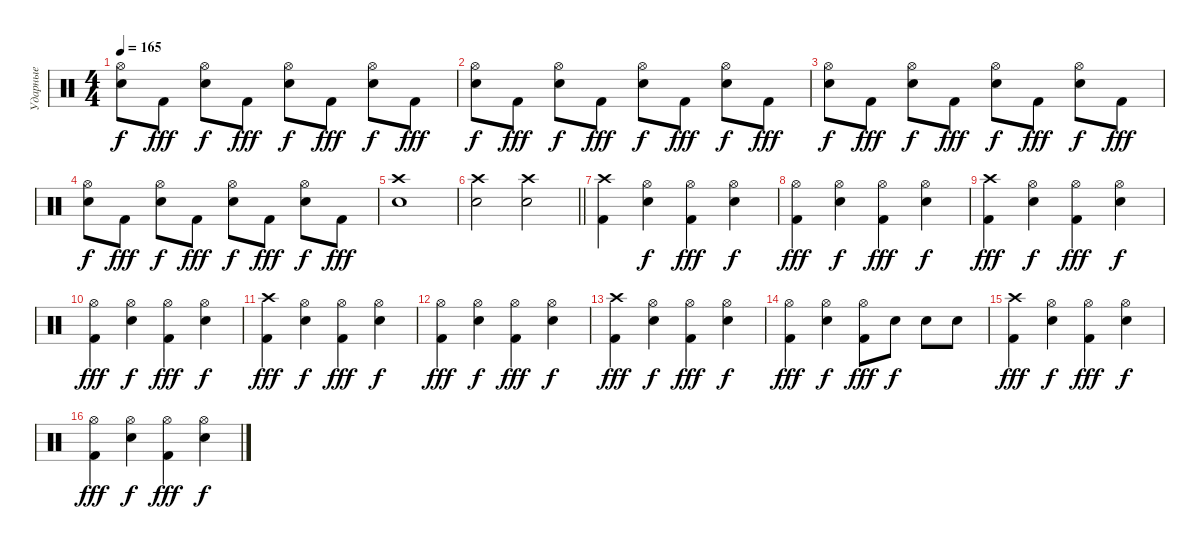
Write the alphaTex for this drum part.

\track ("Ударные" "Ударные") {instrument percussion}
\staff {score}
\articulation defaults
\ts (4 4)
\tempo 165
\clef neutral
\ks c
("Snare (hit) 2" "Hi-Hat (open)").8{dy f} "Kick (hit) 2".8{dy fff} ("Snare (hit) 2" "Hi-Hat (open)").8{dy f} "Kick (hit) 2".8{dy fff} ("Snare (hit) 2" "Hi-Hat (open)").8{dy f} "Kick (hit) 2".8{dy fff} ("Snare (hit) 2" "Hi-Hat (open)").8{dy f} "Kick (hit) 2".8{dy fff} |
("Snare (hit) 2" "Hi-Hat (open)").8{dy f} "Kick (hit) 2".8{dy fff} ("Snare (hit) 2" "Hi-Hat (open)").8{dy f} "Kick (hit) 2".8{dy fff} ("Snare (hit) 2" "Hi-Hat (open)").8{dy f} "Kick (hit) 2".8{dy fff} ("Snare (hit) 2" "Hi-Hat (open)").8{dy f} "Kick (hit) 2".8{dy fff} |
("Snare (hit) 2" "Hi-Hat (open)").8{dy f} "Kick (hit) 2".8{dy fff} ("Snare (hit) 2" "Hi-Hat (open)").8{dy f} "Kick (hit) 2".8{dy fff} ("Snare (hit) 2" "Hi-Hat (open)").8{dy f} "Kick (hit) 2".8{dy fff} ("Snare (hit) 2" "Hi-Hat (open)").8{dy f} "Kick (hit) 2".8{dy fff} |
("Snare (hit) 2" "Hi-Hat (open)").8{dy f} "Kick (hit) 2".8{dy fff} ("Snare (hit) 2" "Hi-Hat (open)").8{dy f} "Kick (hit) 2".8{dy fff} ("Snare (hit) 2" "Hi-Hat (open)").8{dy f} "Kick (hit) 2".8{dy fff} ("Snare (hit) 2" "Hi-Hat (open)").8{dy f} "Kick (hit) 2".8{dy fff} |
("Snare (hit) 2" "Crash high (hit)").1 |
\barLineRight lightlight
("Snare (hit) 2" "Crash high (hit)").2 ("Snare (hit) 2" "Crash high (hit)").2 |
("Kick (hit) 2" "Crash high (hit)").4 ("Snare (hit) 2" "Hi-Hat (open)").4{dy f} ("Kick (hit) 2" "Hi-Hat (open)").4{dy fff} ("Snare (hit) 2" "Hi-Hat (open)").4{dy f} |
("Kick (hit) 2" "Hi-Hat (open)").4{dy fff} ("Snare (hit) 2" "Hi-Hat (open)").4{dy f} ("Kick (hit) 2" "Hi-Hat (open)").4{dy fff} ("Snare (hit) 2" "Hi-Hat (open)").4{dy f} |
("Kick (hit) 2" "Crash high (hit)").4{dy fff} ("Snare (hit) 2" "Hi-Hat (open)").4{dy f} ("Kick (hit) 2" "Hi-Hat (open)").4{dy fff} ("Snare (hit) 2" "Hi-Hat (open)").4{dy f} |
("Kick (hit) 2" "Hi-Hat (open)").4{dy fff} ("Snare (hit) 2" "Hi-Hat (open)").4{dy f} ("Kick (hit) 2" "Hi-Hat (open)").4{dy fff} ("Snare (hit) 2" "Hi-Hat (open)").4{dy f} |
("Kick (hit) 2" "Crash high (hit)").4{dy fff} ("Snare (hit) 2" "Hi-Hat (open)").4{dy f} ("Kick (hit) 2" "Hi-Hat (open)").4{dy fff} ("Snare (hit) 2" "Hi-Hat (open)").4{dy f} |
("Kick (hit) 2" "Hi-Hat (open)").4{dy fff} ("Snare (hit) 2" "Hi-Hat (open)").4{dy f} ("Kick (hit) 2" "Hi-Hat (open)").4{dy fff} ("Snare (hit) 2" "Hi-Hat (open)").4{dy f} |
("Kick (hit) 2" "Crash high (hit)").4{dy fff} ("Snare (hit) 2" "Hi-Hat (open)").4{dy f} ("Kick (hit) 2" "Hi-Hat (open)").4{dy fff} ("Snare (hit) 2" "Hi-Hat (open)").4{dy f} |
("Kick (hit) 2" "Hi-Hat (open)").4{dy fff} ("Snare (hit) 2" "Hi-Hat (open)").4{dy f} ("Kick (hit) 2" "Hi-Hat (open)").8{dy fff} "Snare (hit) 2".8{dy f} "Snare (hit) 2".8 "Snare (hit) 2".8 |
("Kick (hit) 2" "Crash high (hit)").4{dy fff} ("Snare (hit) 2" "Hi-Hat (open)").4{dy f} ("Kick (hit) 2" "Hi-Hat (open)").4{dy fff} ("Snare (hit) 2" "Hi-Hat (open)").4{dy f} |
("Kick (hit) 2" "Hi-Hat (open)").4{dy fff} ("Snare (hit) 2" "Hi-Hat (open)").4{dy f} ("Kick (hit) 2" "Hi-Hat (open)").4{dy fff} ("Snare (hit) 2" "Hi-Hat (open)").4{dy f}
